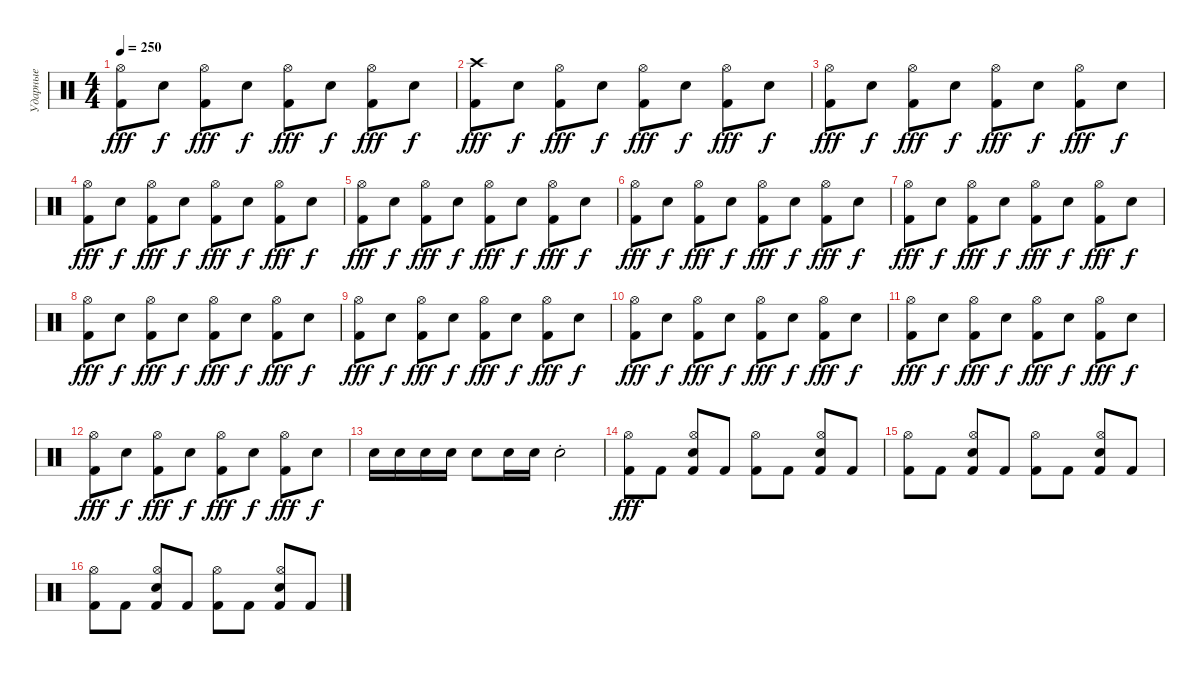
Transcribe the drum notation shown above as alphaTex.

\track ("Ударные" "Ударные") {instrument percussion}
\staff {score}
\articulation defaults
\ts (4 4)
\tempo 250
\clef neutral
\ks c
("Kick (hit) 2" "Hi-Hat (open)").8{dy fff} "Snare (hit) 2".8{dy f} ("Kick (hit) 2" "Hi-Hat (open)").8{dy fff} "Snare (hit) 2".8{dy f} ("Kick (hit) 2" "Hi-Hat (open)").8{dy fff} "Snare (hit) 2".8{dy f} ("Kick (hit) 2" "Hi-Hat (open)").8{dy fff} "Snare (hit) 2".8{dy f} |
("Kick (hit) 2" "Crash high (hit)").8{dy fff} "Snare (hit) 2".8{dy f} ("Kick (hit) 2" "Hi-Hat (open)").8{dy fff} "Snare (hit) 2".8{dy f} ("Kick (hit) 2" "Hi-Hat (open)").8{dy fff} "Snare (hit) 2".8{dy f} ("Kick (hit) 2" "Hi-Hat (open)").8{dy fff} "Snare (hit) 2".8{dy f} |
("Kick (hit) 2" "Hi-Hat (open)").8{dy fff} "Snare (hit) 2".8{dy f} ("Kick (hit) 2" "Hi-Hat (open)").8{dy fff} "Snare (hit) 2".8{dy f} ("Kick (hit) 2" "Hi-Hat (open)").8{dy fff} "Snare (hit) 2".8{dy f} ("Kick (hit) 2" "Hi-Hat (open)").8{dy fff} "Snare (hit) 2".8{dy f} |
("Kick (hit) 2" "Hi-Hat (open)").8{dy fff} "Snare (hit) 2".8{dy f} ("Kick (hit) 2" "Hi-Hat (open)").8{dy fff} "Snare (hit) 2".8{dy f} ("Kick (hit) 2" "Hi-Hat (open)").8{dy fff} "Snare (hit) 2".8{dy f} ("Kick (hit) 2" "Hi-Hat (open)").8{dy fff} "Snare (hit) 2".8{dy f} |
("Kick (hit) 2" "Hi-Hat (open)").8{dy fff} "Snare (hit) 2".8{dy f} ("Kick (hit) 2" "Hi-Hat (open)").8{dy fff} "Snare (hit) 2".8{dy f} ("Kick (hit) 2" "Hi-Hat (open)").8{dy fff} "Snare (hit) 2".8{dy f} ("Kick (hit) 2" "Hi-Hat (open)").8{dy fff} "Snare (hit) 2".8{dy f} |
("Kick (hit) 2" "Hi-Hat (open)").8{dy fff} "Snare (hit) 2".8{dy f} ("Kick (hit) 2" "Hi-Hat (open)").8{dy fff} "Snare (hit) 2".8{dy f} ("Kick (hit) 2" "Hi-Hat (open)").8{dy fff} "Snare (hit) 2".8{dy f} ("Kick (hit) 2" "Hi-Hat (open)").8{dy fff} "Snare (hit) 2".8{dy f} |
("Kick (hit) 2" "Hi-Hat (open)").8{dy fff} "Snare (hit) 2".8{dy f} ("Kick (hit) 2" "Hi-Hat (open)").8{dy fff} "Snare (hit) 2".8{dy f} ("Kick (hit) 2" "Hi-Hat (open)").8{dy fff} "Snare (hit) 2".8{dy f} ("Kick (hit) 2" "Hi-Hat (open)").8{dy fff} "Snare (hit) 2".8{dy f} |
("Kick (hit) 2" "Hi-Hat (open)").8{dy fff} "Snare (hit) 2".8{dy f} ("Kick (hit) 2" "Hi-Hat (open)").8{dy fff} "Snare (hit) 2".8{dy f} ("Kick (hit) 2" "Hi-Hat (open)").8{dy fff} "Snare (hit) 2".8{dy f} ("Kick (hit) 2" "Hi-Hat (open)").8{dy fff} "Snare (hit) 2".8{dy f} |
("Kick (hit) 2" "Hi-Hat (open)").8{dy fff} "Snare (hit) 2".8{dy f} ("Kick (hit) 2" "Hi-Hat (open)").8{dy fff} "Snare (hit) 2".8{dy f} ("Kick (hit) 2" "Hi-Hat (open)").8{dy fff} "Snare (hit) 2".8{dy f} ("Kick (hit) 2" "Hi-Hat (open)").8{dy fff} "Snare (hit) 2".8{dy f} |
("Kick (hit) 2" "Hi-Hat (open)").8{dy fff} "Snare (hit) 2".8{dy f} ("Kick (hit) 2" "Hi-Hat (open)").8{dy fff} "Snare (hit) 2".8{dy f} ("Kick (hit) 2" "Hi-Hat (open)").8{dy fff} "Snare (hit) 2".8{dy f} ("Kick (hit) 2" "Hi-Hat (open)").8{dy fff} "Snare (hit) 2".8{dy f} |
("Kick (hit) 2" "Hi-Hat (open)").8{dy fff} "Snare (hit) 2".8{dy f} ("Kick (hit) 2" "Hi-Hat (open)").8{dy fff} "Snare (hit) 2".8{dy f} ("Kick (hit) 2" "Hi-Hat (open)").8{dy fff} "Snare (hit) 2".8{dy f} ("Kick (hit) 2" "Hi-Hat (open)").8{dy fff} "Snare (hit) 2".8{dy f} |
("Kick (hit) 2" "Hi-Hat (open)").8{dy fff} "Snare (hit) 2".8{dy f} ("Kick (hit) 2" "Hi-Hat (open)").8{dy fff} "Snare (hit) 2".8{dy f} ("Kick (hit) 2" "Hi-Hat (open)").8{dy fff} "Snare (hit) 2".8{dy f} ("Kick (hit) 2" "Hi-Hat (open)").8{dy fff} "Snare (hit) 2".8{dy f} |
"Snare (hit) 2".16 "Snare (hit) 2".16 "Snare (hit) 2".16 "Snare (hit) 2".16 "Snare (hit) 2".8 "Snare (hit) 2".16 "Snare (hit) 2".16 "Snare (hit) 2"{st}.2 |
("Kick (hit) 2" "Hi-Hat (open)").8{dy fff} "Kick (hit) 2".8 ("Kick (hit) 2" "Snare (hit) 2" "Hi-Hat (open)").8 "Kick (hit) 2".8 ("Kick (hit) 2" "Hi-Hat (open)").8 "Kick (hit) 2".8 ("Kick (hit) 2" "Snare (hit) 2" "Hi-Hat (open)").8 "Kick (hit) 2".8 |
("Kick (hit) 2" "Hi-Hat (open)").8 "Kick (hit) 2".8 ("Kick (hit) 2" "Snare (hit) 2" "Hi-Hat (open)").8 "Kick (hit) 2".8 ("Kick (hit) 2" "Hi-Hat (open)").8 "Kick (hit) 2".8 ("Kick (hit) 2" "Snare (hit) 2" "Hi-Hat (open)").8 "Kick (hit) 2".8 |
("Kick (hit) 2" "Hi-Hat (open)").8 "Kick (hit) 2".8 ("Kick (hit) 2" "Snare (hit) 2" "Hi-Hat (open)").8 "Kick (hit) 2".8 ("Kick (hit) 2" "Hi-Hat (open)").8 "Kick (hit) 2".8 ("Kick (hit) 2" "Snare (hit) 2" "Hi-Hat (open)").8 "Kick (hit) 2".8
